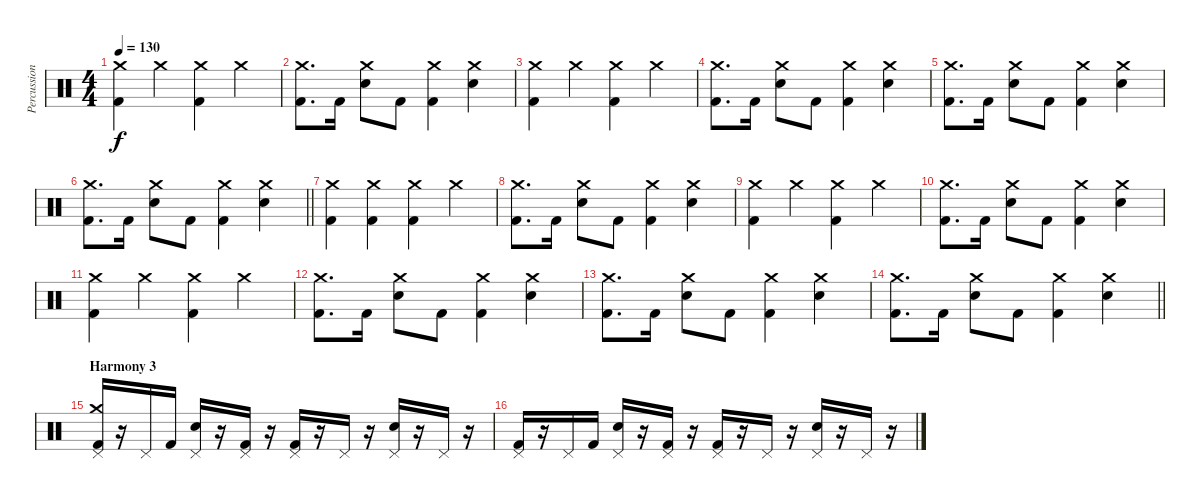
\track ("Percussion" "Percussion") {instrument percussion}
\staff {score}
\articulation defaults
\ts (4 4)
\tempo 130
\clef neutral
\ks c
("Kick (hit) 2" "Crash medium (hit)").4{dy f} "Crash medium (hit)".4 ("Kick (hit) 2" "Crash medium (hit)").4 "Crash medium (hit)".4 |
("Kick (hit) 2" "Crash medium (hit)").8{d} "Kick (hit) 2".16 ("Electric Snare (hit)" "Crash medium (hit)").8 "Kick (hit) 2".8 ("Kick (hit) 2" "Crash medium (hit)").4 ("Electric Snare (hit)" "Crash medium (hit)").4 |
("Kick (hit) 2" "Crash medium (hit)").4 "Crash medium (hit)".4 ("Kick (hit) 2" "Crash medium (hit)").4 "Crash medium (hit)".4 |
("Kick (hit) 2" "Crash medium (hit)").8{d} "Kick (hit) 2".16 ("Electric Snare (hit)" "Crash medium (hit)").8 "Kick (hit) 2".8 ("Kick (hit) 2" "Crash medium (hit)").4 ("Electric Snare (hit)" "Crash medium (hit)").4 |
("Kick (hit) 2" "Crash medium (hit)").8{d} "Kick (hit) 2".16 ("Electric Snare (hit)" "Crash medium (hit)").8 "Kick (hit) 2".8 ("Kick (hit) 2" "Crash medium (hit)").4 ("Electric Snare (hit)" "Crash medium (hit)").4 |
\barLineRight lightlight
("Kick (hit) 2" "Crash medium (hit)").8{d} "Kick (hit) 2".16 ("Electric Snare (hit)" "Crash medium (hit)").8 "Kick (hit) 2".8 ("Kick (hit) 2" "Crash medium (hit)").4 ("Electric Snare (hit)" "Crash medium (hit)").4 |
\section ("" "")
("Kick (hit) 2" "Crash medium (hit)").4 ("Kick (hit) 2" "Crash medium (hit)").4 ("Kick (hit) 2" "Crash medium (hit)").4 "Crash medium (hit)".4 |
("Kick (hit) 2" "Crash medium (hit)").8{d} "Kick (hit) 2".16 ("Electric Snare (hit)" "Crash medium (hit)").8 "Kick (hit) 2".8 ("Kick (hit) 2" "Crash medium (hit)").4 ("Electric Snare (hit)" "Crash medium (hit)").4 |
("Kick (hit) 2" "Crash medium (hit)").4 "Crash medium (hit)".4 ("Kick (hit) 2" "Crash medium (hit)").4 "Crash medium (hit)".4 |
("Kick (hit) 2" "Crash medium (hit)").8{d} "Kick (hit) 2".16 ("Electric Snare (hit)" "Crash medium (hit)").8 "Kick (hit) 2".8 ("Kick (hit) 2" "Crash medium (hit)").4 ("Electric Snare (hit)" "Crash medium (hit)").4 |
("Kick (hit) 2" "Crash medium (hit)").4 "Crash medium (hit)".4 ("Kick (hit) 2" "Crash medium (hit)").4 "Crash medium (hit)".4 |
("Kick (hit) 2" "Crash medium (hit)").8{d} "Kick (hit) 2".16 ("Electric Snare (hit)" "Crash medium (hit)").8 "Kick (hit) 2".8 ("Kick (hit) 2" "Crash medium (hit)").4 ("Electric Snare (hit)" "Crash medium (hit)").4 |
("Kick (hit) 2" "Crash medium (hit)").8{d} "Kick (hit) 2".16 ("Electric Snare (hit)" "Crash medium (hit)").8 "Kick (hit) 2".8 ("Kick (hit) 2" "Crash medium (hit)").4 ("Electric Snare (hit)" "Crash medium (hit)").4 |
\barLineRight lightlight
("Kick (hit) 2" "Crash medium (hit)").8{d} "Kick (hit) 2".16 ("Electric Snare (hit)" "Crash medium (hit)").8 "Kick (hit) 2".8 ("Kick (hit) 2" "Crash medium (hit)").4 ("Electric Snare (hit)" "Crash medium (hit)").4 |
\section ("" "Harmony 3")
("Kick (hit) 2" "Pedal Hi-Hat (hit)" "Crash medium (hit)").16 r.16 "Pedal Hi-Hat (hit)".16 "Kick (hit) 2".16 ("Electric Snare (hit)" "Pedal Hi-Hat (hit)").16 r.16 ("Kick (hit) 2" "Pedal Hi-Hat (hit)").16 r.16 ("Kick (hit) 2" "Pedal Hi-Hat (hit)").16 r.16 "Pedal Hi-Hat (hit)".16 r.16 ("Electric Snare (hit)" "Pedal Hi-Hat (hit)").16 r.16 "Pedal Hi-Hat (hit)".16 r.16 |
("Kick (hit) 2" "Pedal Hi-Hat (hit)").16 r.16 "Pedal Hi-Hat (hit)".16 "Kick (hit) 2".16 ("Electric Snare (hit)" "Pedal Hi-Hat (hit)").16 r.16 ("Kick (hit) 2" "Pedal Hi-Hat (hit)").16 r.16 ("Kick (hit) 2" "Pedal Hi-Hat (hit)").16 r.16 "Pedal Hi-Hat (hit)".16 r.16 ("Electric Snare (hit)" "Pedal Hi-Hat (hit)").16 r.16 "Pedal Hi-Hat (hit)".16 r.16
